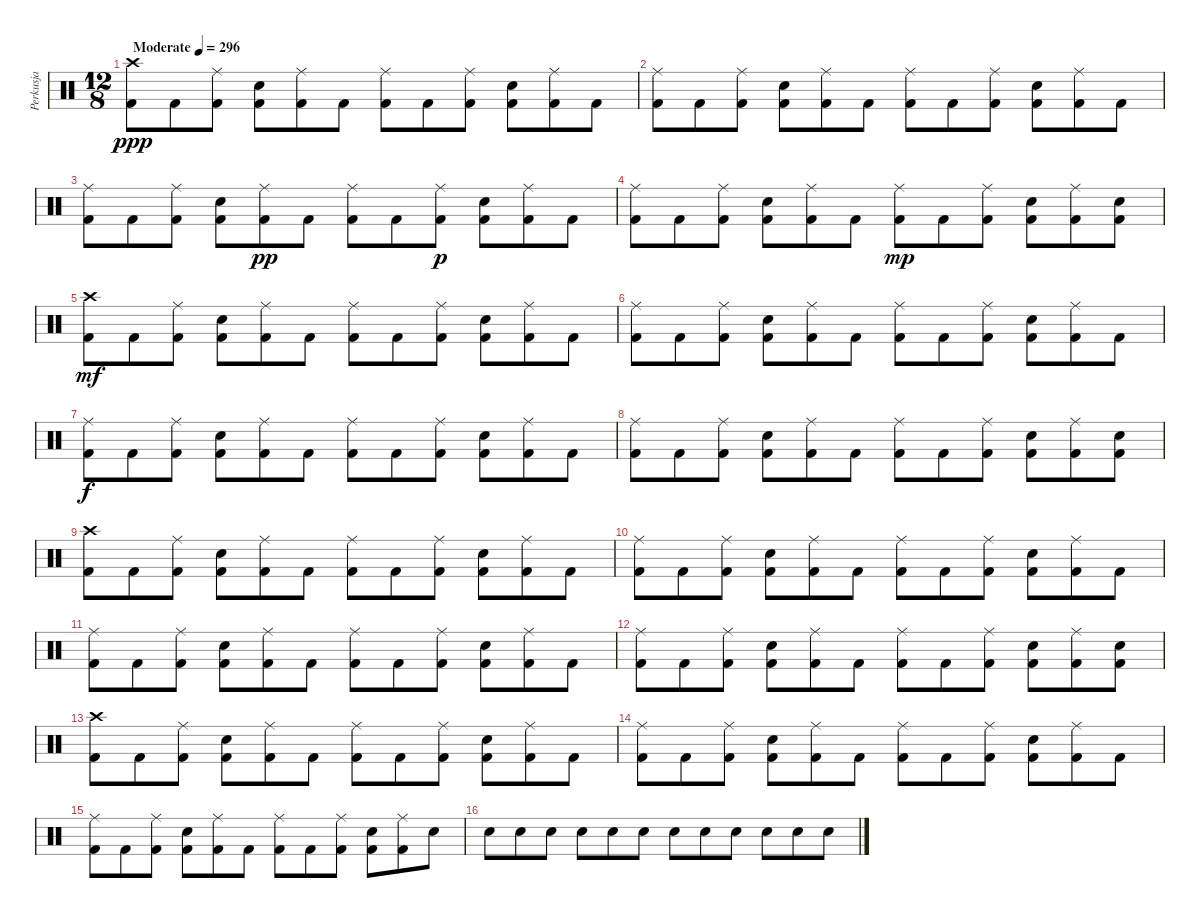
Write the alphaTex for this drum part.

\track ("Perkusja" "Perkusja") {instrument percussion bank 10}
\staff {score}
\articulation defaults
\ts (12 8)
\tempo (296 "Moderate")
\clef neutral
\ks c
("Crash high (hit)" "Kick (hit) 2").8{dy ppp} "Kick (hit) 2".8 ("Ride (middle)" "Kick (hit) 2").8 ("Snare (hit) 2" "Kick (hit) 2").8 ("Ride (middle)" "Kick (hit) 2").8 "Kick (hit) 2".8 ("Ride (middle)" "Kick (hit) 2").8 "Kick (hit) 2".8 ("Ride (middle)" "Kick (hit) 2").8 ("Snare (hit) 2" "Kick (hit) 2").8 ("Ride (middle)" "Kick (hit) 2").8 "Kick (hit) 2".8 |
("Ride (middle)" "Kick (hit) 2").8 "Kick (hit) 2".8 ("Ride (middle)" "Kick (hit) 2").8 ("Snare (hit) 2" "Kick (hit) 2").8 ("Ride (middle)" "Kick (hit) 2").8 "Kick (hit) 2".8 ("Ride (middle)" "Kick (hit) 2").8 "Kick (hit) 2".8 ("Ride (middle)" "Kick (hit) 2").8 ("Snare (hit) 2" "Kick (hit) 2").8 ("Ride (middle)" "Kick (hit) 2").8 "Kick (hit) 2".8 |
("Ride (middle)" "Kick (hit) 2").8 "Kick (hit) 2".8 ("Ride (middle)" "Kick (hit) 2").8 ("Snare (hit) 2" "Kick (hit) 2").8 ("Ride (middle)" "Kick (hit) 2").8{dy pp} "Kick (hit) 2".8 ("Ride (middle)" "Kick (hit) 2").8 "Kick (hit) 2".8 ("Ride (middle)" "Kick (hit) 2").8{dy p} ("Snare (hit) 2" "Kick (hit) 2").8 ("Ride (middle)" "Kick (hit) 2").8 "Kick (hit) 2".8 |
("Ride (middle)" "Kick (hit) 2").8 "Kick (hit) 2".8 ("Ride (middle)" "Kick (hit) 2").8 ("Snare (hit) 2" "Kick (hit) 2").8 ("Ride (middle)" "Kick (hit) 2").8 "Kick (hit) 2".8 ("Ride (middle)" "Kick (hit) 2").8{dy mp} "Kick (hit) 2".8 ("Ride (middle)" "Kick (hit) 2").8 ("Snare (hit) 2" "Kick (hit) 2").8 ("Ride (middle)" "Kick (hit) 2").8 ("Snare (hit) 2" "Kick (hit) 2").8 |
("Crash high (hit)" "Kick (hit) 2").8{dy mf} "Kick (hit) 2".8 ("Ride (middle)" "Kick (hit) 2").8 ("Snare (hit) 2" "Kick (hit) 2").8 ("Ride (middle)" "Kick (hit) 2").8 "Kick (hit) 2".8 ("Ride (middle)" "Kick (hit) 2").8 "Kick (hit) 2".8 ("Ride (middle)" "Kick (hit) 2").8 ("Snare (hit) 2" "Kick (hit) 2").8 ("Ride (middle)" "Kick (hit) 2").8 "Kick (hit) 2".8 |
("Ride (middle)" "Kick (hit) 2").8 "Kick (hit) 2".8 ("Ride (middle)" "Kick (hit) 2").8 ("Snare (hit) 2" "Kick (hit) 2").8 ("Ride (middle)" "Kick (hit) 2").8 "Kick (hit) 2".8 ("Ride (middle)" "Kick (hit) 2").8 "Kick (hit) 2".8 ("Ride (middle)" "Kick (hit) 2").8 ("Snare (hit) 2" "Kick (hit) 2").8 ("Ride (middle)" "Kick (hit) 2").8 "Kick (hit) 2".8 |
("Ride (middle)" "Kick (hit) 2").8{dy f} "Kick (hit) 2".8 ("Ride (middle)" "Kick (hit) 2").8 ("Snare (hit) 2" "Kick (hit) 2").8 ("Ride (middle)" "Kick (hit) 2").8 "Kick (hit) 2".8 ("Ride (middle)" "Kick (hit) 2").8 "Kick (hit) 2".8 ("Ride (middle)" "Kick (hit) 2").8 ("Snare (hit) 2" "Kick (hit) 2").8 ("Ride (middle)" "Kick (hit) 2").8 "Kick (hit) 2".8 |
("Ride (middle)" "Kick (hit) 2").8 "Kick (hit) 2".8 ("Ride (middle)" "Kick (hit) 2").8 ("Snare (hit) 2" "Kick (hit) 2").8 ("Ride (middle)" "Kick (hit) 2").8 "Kick (hit) 2".8 ("Ride (middle)" "Kick (hit) 2").8 "Kick (hit) 2".8 ("Ride (middle)" "Kick (hit) 2").8 ("Snare (hit) 2" "Kick (hit) 2").8 ("Ride (middle)" "Kick (hit) 2").8 ("Snare (hit) 2" "Kick (hit) 2").8 |
("Crash high (hit)" "Kick (hit) 2").8 "Kick (hit) 2".8 ("Ride (middle)" "Kick (hit) 2").8 ("Snare (hit) 2" "Kick (hit) 2").8 ("Ride (middle)" "Kick (hit) 2").8 "Kick (hit) 2".8 ("Ride (middle)" "Kick (hit) 2").8 "Kick (hit) 2".8 ("Ride (middle)" "Kick (hit) 2").8 ("Snare (hit) 2" "Kick (hit) 2").8 ("Ride (middle)" "Kick (hit) 2").8 "Kick (hit) 2".8 |
("Ride (middle)" "Kick (hit) 2").8 "Kick (hit) 2".8 ("Ride (middle)" "Kick (hit) 2").8 ("Snare (hit) 2" "Kick (hit) 2").8 ("Ride (middle)" "Kick (hit) 2").8 "Kick (hit) 2".8 ("Ride (middle)" "Kick (hit) 2").8 "Kick (hit) 2".8 ("Ride (middle)" "Kick (hit) 2").8 ("Snare (hit) 2" "Kick (hit) 2").8 ("Ride (middle)" "Kick (hit) 2").8 "Kick (hit) 2".8 |
("Ride (middle)" "Kick (hit) 2").8 "Kick (hit) 2".8 ("Ride (middle)" "Kick (hit) 2").8 ("Snare (hit) 2" "Kick (hit) 2").8 ("Ride (middle)" "Kick (hit) 2").8 "Kick (hit) 2".8 ("Ride (middle)" "Kick (hit) 2").8 "Kick (hit) 2".8 ("Ride (middle)" "Kick (hit) 2").8 ("Snare (hit) 2" "Kick (hit) 2").8 ("Ride (middle)" "Kick (hit) 2").8 "Kick (hit) 2".8 |
("Ride (middle)" "Kick (hit) 2").8 "Kick (hit) 2".8 ("Ride (middle)" "Kick (hit) 2").8 ("Snare (hit) 2" "Kick (hit) 2").8 ("Ride (middle)" "Kick (hit) 2").8 "Kick (hit) 2".8 ("Ride (middle)" "Kick (hit) 2").8 "Kick (hit) 2".8 ("Ride (middle)" "Kick (hit) 2").8 ("Snare (hit) 2" "Kick (hit) 2").8 ("Ride (middle)" "Kick (hit) 2").8 ("Snare (hit) 2" "Kick (hit) 2").8 |
("Crash high (hit)" "Kick (hit) 2").8 "Kick (hit) 2".8 ("Ride (middle)" "Kick (hit) 2").8 ("Snare (hit) 2" "Kick (hit) 2").8 ("Ride (middle)" "Kick (hit) 2").8 "Kick (hit) 2".8 ("Ride (middle)" "Kick (hit) 2").8 "Kick (hit) 2".8 ("Ride (middle)" "Kick (hit) 2").8 ("Snare (hit) 2" "Kick (hit) 2").8 ("Ride (middle)" "Kick (hit) 2").8 "Kick (hit) 2".8 |
("Ride (middle)" "Kick (hit) 2").8 "Kick (hit) 2".8 ("Ride (middle)" "Kick (hit) 2").8 ("Snare (hit) 2" "Kick (hit) 2").8 ("Ride (middle)" "Kick (hit) 2").8 "Kick (hit) 2".8 ("Ride (middle)" "Kick (hit) 2").8 "Kick (hit) 2".8 ("Ride (middle)" "Kick (hit) 2").8 ("Snare (hit) 2" "Kick (hit) 2").8 ("Ride (middle)" "Kick (hit) 2").8 "Kick (hit) 2".8 |
("Ride (middle)" "Kick (hit) 2").8 "Kick (hit) 2".8 ("Ride (middle)" "Kick (hit) 2").8 ("Snare (hit) 2" "Kick (hit) 2").8 ("Ride (middle)" "Kick (hit) 2").8 "Kick (hit) 2".8 ("Ride (middle)" "Kick (hit) 2").8 "Kick (hit) 2".8 ("Ride (middle)" "Kick (hit) 2").8 ("Snare (hit) 2" "Kick (hit) 2").8 ("Ride (middle)" "Kick (hit) 2").8 "Snare (hit) 2".8 |
"Snare (hit) 2".8 "Snare (hit) 2".8 "Snare (hit) 2".8 "Snare (hit) 2".8 "Snare (hit) 2".8 "Snare (hit) 2".8 "Snare (hit) 2".8 "Snare (hit) 2".8 "Snare (hit) 2".8 "Snare (hit) 2".8 "Snare (hit) 2".8 "Snare (hit) 2".8
